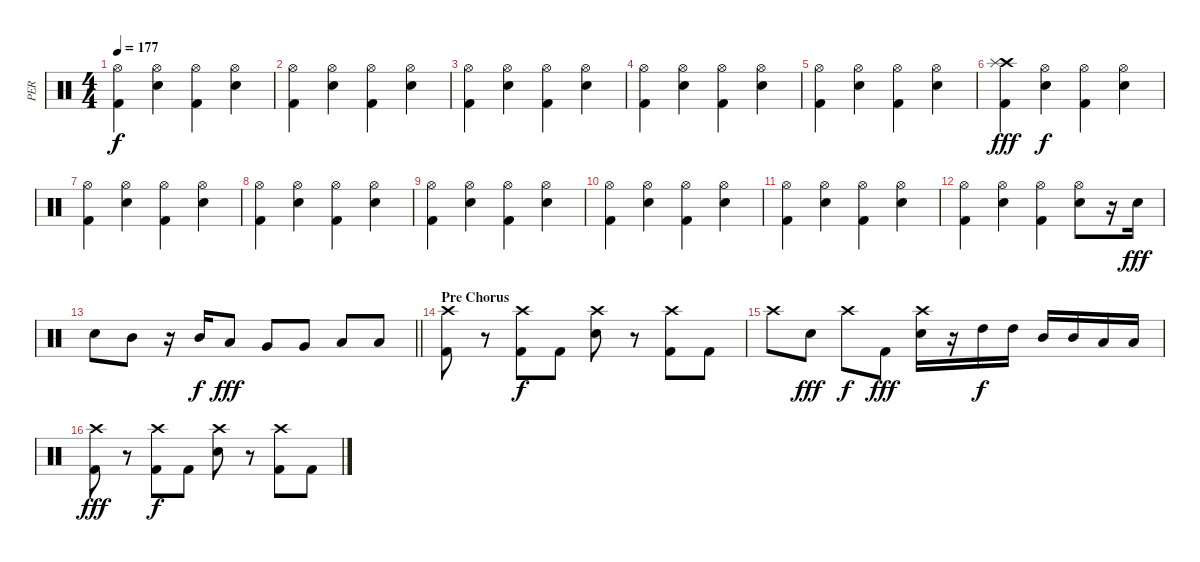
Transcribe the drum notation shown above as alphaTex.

\track ("PER" "PER") {instrument percussion}
\staff {score}
\articulation defaults
\ts (4 4)
\tempo 177
\clef neutral
\ks c
("Hi-Hat (open)" "Kick (hit) 2").4{dy f} ("Hi-Hat (open)" "Electric Snare (hit)").4 ("Hi-Hat (open)" "Kick (hit) 2").4 ("Hi-Hat (open)" "Electric Snare (hit)").4 |
("Hi-Hat (open)" "Kick (hit) 2").4 ("Hi-Hat (open)" "Electric Snare (hit)").4 ("Hi-Hat (open)" "Kick (hit) 2").4 ("Hi-Hat (open)" "Electric Snare (hit)").4 |
("Hi-Hat (open)" "Kick (hit) 2").4 ("Hi-Hat (open)" "Electric Snare (hit)").4 ("Hi-Hat (open)" "Kick (hit) 2").4 ("Hi-Hat (open)" "Electric Snare (hit)").4 |
("Hi-Hat (open)" "Kick (hit) 2").4 ("Hi-Hat (open)" "Electric Snare (hit)").4 ("Hi-Hat (open)" "Kick (hit) 2").4 ("Hi-Hat (open)" "Electric Snare (hit)").4 |
("Hi-Hat (open)" "Kick (hit) 2").4 ("Hi-Hat (open)" "Electric Snare (hit)").4 ("Hi-Hat (open)" "Kick (hit) 2").4 ("Hi-Hat (open)" "Electric Snare (hit)").4 |
("Crash high (hit)" "Splash (hit)" "Kick (hit) 2").4{dy fff} ("Hi-Hat (open)" "Electric Snare (hit)").4{dy f} ("Hi-Hat (open)" "Kick (hit) 2").4 ("Hi-Hat (open)" "Electric Snare (hit)").4 |
("Hi-Hat (open)" "Kick (hit) 2").4 ("Hi-Hat (open)" "Electric Snare (hit)").4 ("Hi-Hat (open)" "Kick (hit) 2").4 ("Hi-Hat (open)" "Electric Snare (hit)").4 |
("Hi-Hat (open)" "Kick (hit) 2").4 ("Hi-Hat (open)" "Electric Snare (hit)").4 ("Hi-Hat (open)" "Kick (hit) 2").4 ("Hi-Hat (open)" "Electric Snare (hit)").4 |
("Hi-Hat (open)" "Kick (hit) 2").4 ("Hi-Hat (open)" "Electric Snare (hit)").4 ("Hi-Hat (open)" "Kick (hit) 2").4 ("Hi-Hat (open)" "Electric Snare (hit)").4 |
("Hi-Hat (open)" "Kick (hit) 2").4 ("Hi-Hat (open)" "Electric Snare (hit)").4 ("Hi-Hat (open)" "Kick (hit) 2").4 ("Hi-Hat (open)" "Electric Snare (hit)").4 |
("Hi-Hat (open)" "Kick (hit) 2").4 ("Hi-Hat (open)" "Electric Snare (hit)").4 ("Hi-Hat (open)" "Kick (hit) 2").4 ("Hi-Hat (open)" "Electric Snare (hit)").4 |
("Hi-Hat (open)" "Kick (hit) 2").4 ("Hi-Hat (open)" "Electric Snare (hit)").4 ("Hi-Hat (open)" "Kick (hit) 2").4 ("Hi-Hat (open)" "Electric Snare (hit)").8 r.16 "Electric Snare (hit)".16{dy fff} |
\barLineRight lightlight "Electric Snare (hit)".8 "Mid Tom (hit)".8
r.16 "Mid Tom (hit)".16{dy f} "Low Tom (hit)".8{dy fff} "Very Low Tom (hit)".8 "Very Low Tom (hit)".8 "Low Floor Tom (hit)".8 "Low Floor Tom (hit)".8 |
\section ("" "Pre Chorus")
("Crash high (hit)" "Kick (hit) 2").8 r.8 ("Crash high (hit)" "Kick (hit) 2").8{dy f} "Kick (hit) 2".8 ("Crash high (hit)" "Electric Snare (hit)").8 r.8 ("Crash high (hit)" "Kick (hit) 2").8 "Kick (hit) 2".8 |
"Crash high (hit)".8 "Electric Snare (hit)".8{dy fff} "Crash high (hit)".8{dy f} "Kick (hit) 2".8{dy fff} ("Crash high (hit)" "Electric Snare (hit)").16 r.16 "High Tom (hit)".16{dy f} "High Tom (hit)".16 "Mid Tom (hit)".16 "Mid Tom (hit)".16 "Low Tom (hit)".16 "Low Tom (hit)".16 |
("Crash high (hit)" "Kick (hit) 2").8{dy fff} r.8 ("Crash high (hit)" "Kick (hit) 2").8{dy f} "Kick (hit) 2".8 ("Crash high (hit)" "Electric Snare (hit)").8 r.8 ("Crash high (hit)" "Kick (hit) 2").8 "Kick (hit) 2".8
